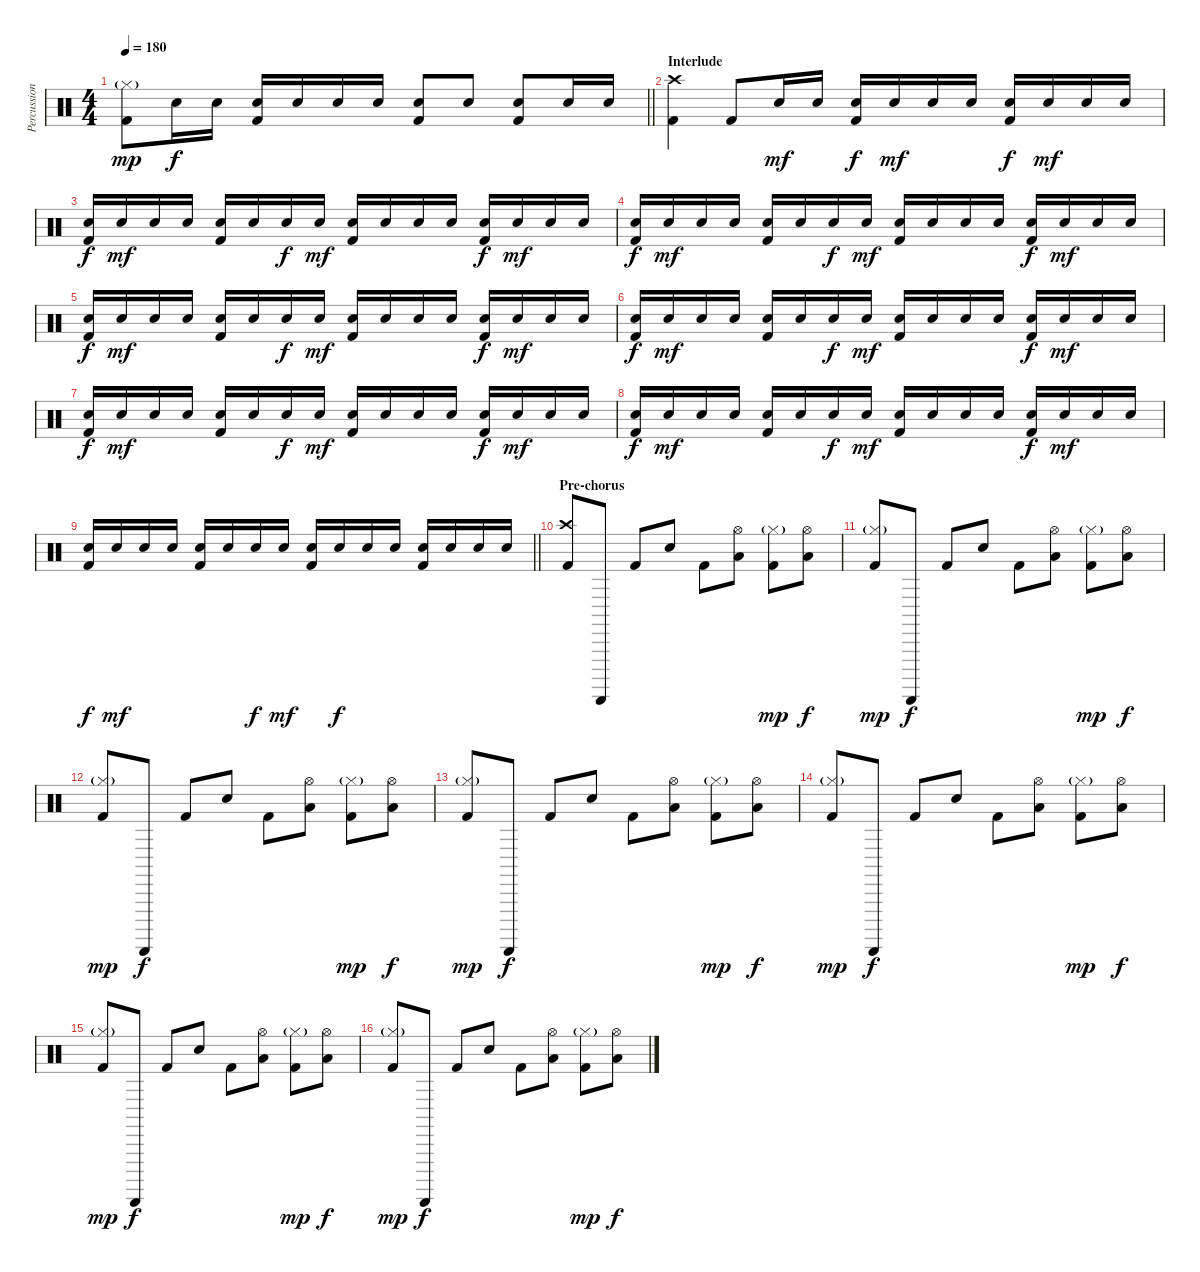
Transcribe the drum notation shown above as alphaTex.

\track ("Percussion" "Percussion") {instrument percussion}
\staff {score}
\articulation defaults
\ts (4 4)
\tempo 180
\clef neutral
\barLineRight lightlight
\ks c
("Hi-Hat (closed)"{g} "Kick (hit) 2").8{dy mp} "Snare (hit) 2".16{dy f} "Snare (hit) 2".16 ("Snare (hit) 2" "Kick (hit) 2").16 "Snare (hit) 2".16 "Snare (hit) 2".16 "Snare (hit) 2".16 ("Snare (hit) 2" "Kick (hit) 2").8 "Snare (hit) 2".8 ("Snare (hit) 2" "Kick (hit) 2").8 "Snare (hit) 2".16 "Snare (hit) 2".16 |
\section ("" "Interlude")
("Crash high (hit)" "Kick (hit) 2").4 "Kick (hit) 2".8 "Snare (hit) 2".16{dy mf} "Snare (hit) 2".16 ("Snare (hit) 2" "Kick (hit) 2").16{dy f} "Snare (hit) 2".16{dy mf} "Snare (hit) 2".16 "Snare (hit) 2".16 ("Snare (hit) 2" "Kick (hit) 2").16{dy f} "Snare (hit) 2".16{dy mf} "Snare (hit) 2".16 "Snare (hit) 2".16 |
("Snare (hit) 2" "Kick (hit) 2").16{dy f} "Snare (hit) 2".16{dy mf} "Snare (hit) 2".16 "Snare (hit) 2".16 ("Snare (hit) 2" "Kick (hit) 2").16 "Snare (hit) 2".16 "Snare (hit) 2".16{dy f} "Snare (hit) 2".16{dy mf} ("Snare (hit) 2" "Kick (hit) 2").16 "Snare (hit) 2".16 "Snare (hit) 2".16 "Snare (hit) 2".16 ("Snare (hit) 2" "Kick (hit) 2").16{dy f} "Snare (hit) 2".16{dy mf} "Snare (hit) 2".16 "Snare (hit) 2".16 |
("Snare (hit) 2" "Kick (hit) 2").16{dy f} "Snare (hit) 2".16{dy mf} "Snare (hit) 2".16 "Snare (hit) 2".16 ("Snare (hit) 2" "Kick (hit) 2").16 "Snare (hit) 2".16 "Snare (hit) 2".16{dy f} "Snare (hit) 2".16{dy mf} ("Snare (hit) 2" "Kick (hit) 2").16 "Snare (hit) 2".16 "Snare (hit) 2".16 "Snare (hit) 2".16 ("Snare (hit) 2" "Kick (hit) 2").16{dy f} "Snare (hit) 2".16{dy mf} "Snare (hit) 2".16 "Snare (hit) 2".16 |
("Snare (hit) 2" "Kick (hit) 2").16{dy f} "Snare (hit) 2".16{dy mf} "Snare (hit) 2".16 "Snare (hit) 2".16 ("Snare (hit) 2" "Kick (hit) 2").16 "Snare (hit) 2".16 "Snare (hit) 2".16{dy f} "Snare (hit) 2".16{dy mf} ("Snare (hit) 2" "Kick (hit) 2").16 "Snare (hit) 2".16 "Snare (hit) 2".16 "Snare (hit) 2".16 ("Snare (hit) 2" "Kick (hit) 2").16{dy f} "Snare (hit) 2".16{dy mf} "Snare (hit) 2".16 "Snare (hit) 2".16 |
("Snare (hit) 2" "Kick (hit) 2").16{dy f} "Snare (hit) 2".16{dy mf} "Snare (hit) 2".16 "Snare (hit) 2".16 ("Snare (hit) 2" "Kick (hit) 2").16 "Snare (hit) 2".16 "Snare (hit) 2".16{dy f} "Snare (hit) 2".16{dy mf} ("Snare (hit) 2" "Kick (hit) 2").16 "Snare (hit) 2".16 "Snare (hit) 2".16 "Snare (hit) 2".16 ("Snare (hit) 2" "Kick (hit) 2").16{dy f} "Snare (hit) 2".16{dy mf} "Snare (hit) 2".16 "Snare (hit) 2".16 |
("Snare (hit) 2" "Kick (hit) 2").16{dy f} "Snare (hit) 2".16{dy mf} "Snare (hit) 2".16 "Snare (hit) 2".16 ("Snare (hit) 2" "Kick (hit) 2").16 "Snare (hit) 2".16 "Snare (hit) 2".16{dy f} "Snare (hit) 2".16{dy mf} ("Snare (hit) 2" "Kick (hit) 2").16 "Snare (hit) 2".16 "Snare (hit) 2".16 "Snare (hit) 2".16 ("Snare (hit) 2" "Kick (hit) 2").16{dy f} "Snare (hit) 2".16{dy mf} "Snare (hit) 2".16 "Snare (hit) 2".16 |
("Snare (hit) 2" "Kick (hit) 2").16{dy f} "Snare (hit) 2".16{dy mf} "Snare (hit) 2".16 "Snare (hit) 2".16 ("Snare (hit) 2" "Kick (hit) 2").16 "Snare (hit) 2".16 "Snare (hit) 2".16{dy f} "Snare (hit) 2".16{dy mf} ("Snare (hit) 2" "Kick (hit) 2").16 "Snare (hit) 2".16 "Snare (hit) 2".16 "Snare (hit) 2".16 ("Snare (hit) 2" "Kick (hit) 2").16{dy f} "Snare (hit) 2".16{dy mf} "Snare (hit) 2".16 "Snare (hit) 2".16 |
\barLineRight lightlight
("Snare (hit) 2" "Kick (hit) 2").16{dy f} "Snare (hit) 2".16{dy mf} "Snare (hit) 2".16 "Snare (hit) 2".16 ("Snare (hit) 2" "Kick (hit) 2").16 "Snare (hit) 2".16 "Snare (hit) 2".16{dy f} "Snare (hit) 2".16{dy mf} ("Snare (hit) 2" "Kick (hit) 2").16 "Snare (hit) 2".16{dy f} "Snare (hit) 2".16 "Snare (hit) 2".16 ("Snare (hit) 2" "Kick (hit) 2").16 "Snare (hit) 2".16 "Snare (hit) 2".16 "Snare (hit) 2".16 |
\section ("" "Pre-chorus")
("Crash high (hit)" "Kick (hit) 2").8 "Guiro (scrap-return)".8 "Kick (hit) 2".8 "Snare (hit) 2".8 "Kick (hit) 2".8 ("Hi-Hat (open)" "Low Tom (hit)").8 ("Hi-Hat (closed)"{g} "Kick (hit) 2").8{dy mp} ("Hi-Hat (open)" "Low Tom (hit)").8{dy f} |
("Hi-Hat (closed)"{g} "Kick (hit) 2").8{dy mp} "Guiro (scrap-return)".8{dy f} "Kick (hit) 2".8 "Snare (hit) 2".8 "Kick (hit) 2".8 ("Hi-Hat (open)" "Low Tom (hit)").8 ("Hi-Hat (closed)"{g} "Kick (hit) 2").8{dy mp} ("Hi-Hat (open)" "Low Tom (hit)").8{dy f} |
("Hi-Hat (closed)"{g} "Kick (hit) 2").8{dy mp} "Guiro (scrap-return)".8{dy f} "Kick (hit) 2".8 "Snare (hit) 2".8 "Kick (hit) 2".8 ("Hi-Hat (open)" "Low Tom (hit)").8 ("Hi-Hat (closed)"{g} "Kick (hit) 2").8{dy mp} ("Hi-Hat (open)" "Low Tom (hit)").8{dy f} |
("Hi-Hat (closed)"{g} "Kick (hit) 2").8{dy mp} "Guiro (scrap-return)".8{dy f} "Kick (hit) 2".8 "Snare (hit) 2".8 "Kick (hit) 2".8 ("Hi-Hat (open)" "Low Tom (hit)").8 ("Hi-Hat (closed)"{g} "Kick (hit) 2").8{dy mp} ("Hi-Hat (open)" "Low Tom (hit)").8{dy f} |
("Hi-Hat (closed)"{g} "Kick (hit) 2").8{dy mp} "Guiro (scrap-return)".8{dy f} "Kick (hit) 2".8 "Snare (hit) 2".8 "Kick (hit) 2".8 ("Hi-Hat (open)" "Low Tom (hit)").8 ("Hi-Hat (closed)"{g} "Kick (hit) 2").8{dy mp} ("Hi-Hat (open)" "Low Tom (hit)").8{dy f} |
("Hi-Hat (closed)"{g} "Kick (hit) 2").8{dy mp} "Guiro (scrap-return)".8{dy f} "Kick (hit) 2".8 "Snare (hit) 2".8 "Kick (hit) 2".8 ("Hi-Hat (open)" "Low Tom (hit)").8 ("Hi-Hat (closed)"{g} "Kick (hit) 2").8{dy mp} ("Hi-Hat (open)" "Low Tom (hit)").8{dy f} |
("Hi-Hat (closed)"{g} "Kick (hit) 2").8{dy mp} "Guiro (scrap-return)".8{dy f} "Kick (hit) 2".8 "Snare (hit) 2".8 "Kick (hit) 2".8 ("Hi-Hat (open)" "Low Tom (hit)").8 ("Hi-Hat (closed)"{g} "Kick (hit) 2").8{dy mp} ("Hi-Hat (open)" "Low Tom (hit)").8{dy f}
